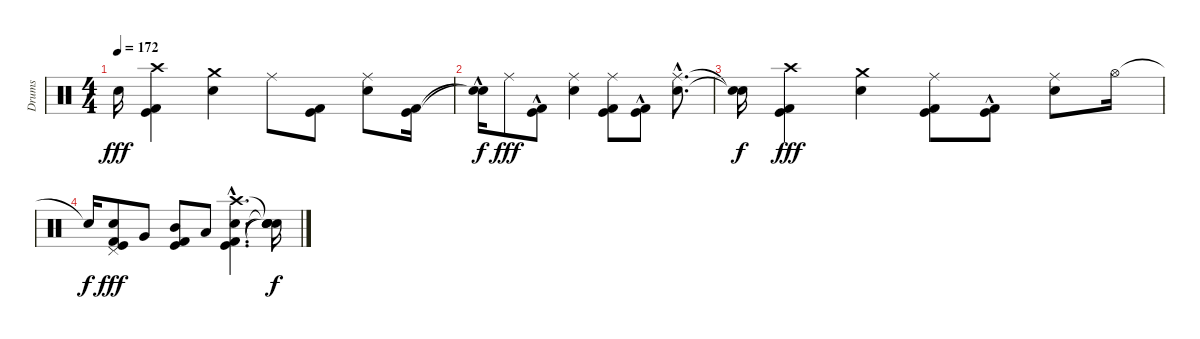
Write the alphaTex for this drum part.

\track ("Drums" "Drums") {instrument percussion}
\staff {score}
\articulation defaults
\ts (4 4)
\tempo 172
\clef neutral
\ks c "Electric Snare (hit)".16{dy fff}
("Kick (hit)" "Kick (hit) 2" "Crash high (hit)").4 ("Electric Snare (hit)" "Crash medium (hit)").4 "Ride (middle)".8 ("Kick (hit)" "Kick (hit) 2").8 ("Electric Snare (hit)" "Ride (middle)").8 ("Kick (hit)" "Kick (hit) 2").16 |
("Snare (hit)"{hac t} "Snare (hit)"{hac t}).16{dy f} "Ride (middle)".8{dy fff} ("Kick (hit)"{hac} "Kick (hit) 2"{hac}).8 ("Electric Snare (hit)" "Ride (middle)").4 ("Kick (hit)" "Kick (hit) 2" "Ride (middle)").8 ("Kick (hit)"{hac} "Kick (hit) 2"{hac}).8 ("Electric Snare (hit)"{hac} "Ride (middle)"{hac}).8{d} |
("Snare (hit)"{t} "Snare (hit)"{t}).16{dy f} ("Kick (hit)" "Kick (hit) 2" "Crash high (hit)").4{dy fff} ("Electric Snare (hit)" "Crash medium (hit)").4 ("Kick (hit)" "Kick (hit) 2" "Ride (middle)").8 ("Kick (hit)"{hac} "Kick (hit) 2"{hac}).8 ("Electric Snare (hit)" "Ride (middle)").8 "Hi-Hat (open)".16 |
"Snare (hit)"{t}.16{dy f} ("Kick (hit)" "Kick (hit) 2" "Electric Snare (hit)" "Pedal Hi-Hat (hit)").8{dy fff} "Very Low Tom (hit)".8 ("Kick (hit)" "Kick (hit) 2" "Mid Tom (hit)").8 "Low Tom (hit)".8 ("Kick (hit)"{hac} "Kick (hit) 2"{hac} "Electric Snare (hit)"{hac} "Crash high (hit)"{hac}).4{d} ("Snare (hit)"{t} "Snare (hit)"{t} "Snare (hit)"{t} "Snare (hit)"{t}).16{dy f}
